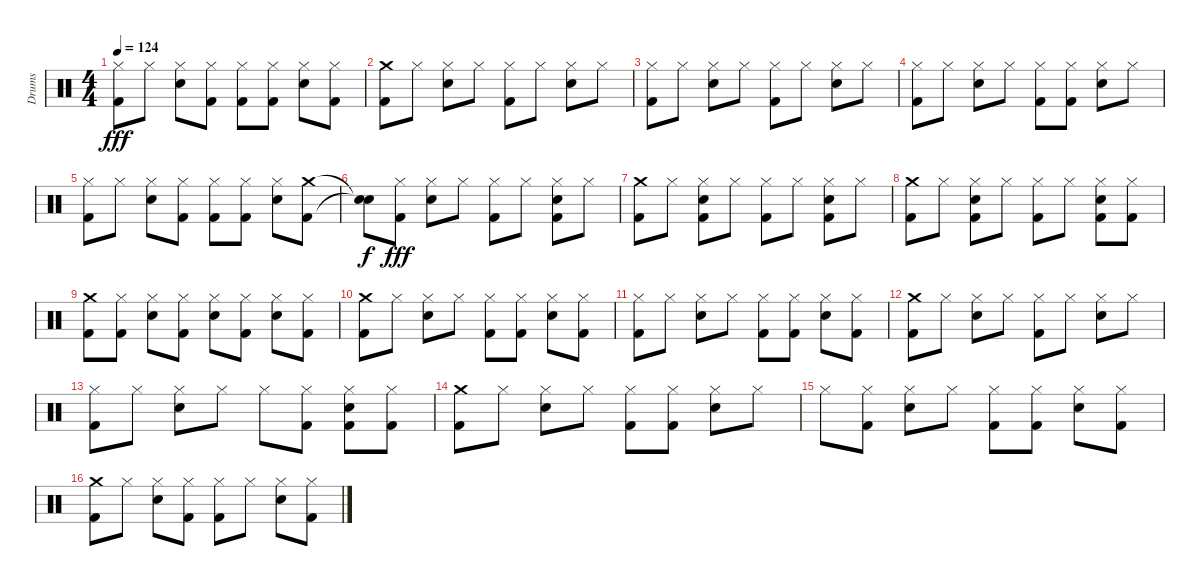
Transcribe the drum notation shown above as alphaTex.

\track ("Drums" "Drums") {instrument percussion}
\staff {score}
\articulation defaults
\ts (4 4)
\tempo 124
\clef neutral
\ks c
("Hi-Hat (closed)" "Kick (hit) 2").8{dy fff} "Hi-Hat (closed)".8 ("Hi-Hat (closed)" "Snare (hit) 2").8 ("Hi-Hat (closed)" "Kick (hit) 2").8 ("Hi-Hat (closed)" "Kick (hit) 2").8 ("Hi-Hat (closed)" "Kick (hit) 2").8 ("Hi-Hat (closed)" "Snare (hit) 2").8 ("Hi-Hat (closed)" "Kick (hit) 2").8 |
("Crash medium (hit)" "Kick (hit) 2").8 "Hi-Hat (closed)".8 ("Hi-Hat (closed)" "Snare (hit) 2").8 "Hi-Hat (closed)".8 ("Hi-Hat (closed)" "Kick (hit) 2").8 "Hi-Hat (closed)".8 ("Hi-Hat (closed)" "Snare (hit) 2").8 "Hi-Hat (closed)".8 |
("Hi-Hat (closed)" "Kick (hit) 2").8 "Hi-Hat (closed)".8 ("Hi-Hat (closed)" "Snare (hit) 2").8 "Hi-Hat (closed)".8 ("Hi-Hat (closed)" "Kick (hit) 2").8 "Hi-Hat (closed)".8 ("Hi-Hat (closed)" "Snare (hit) 2").8 "Hi-Hat (closed)".8 |
("Hi-Hat (closed)" "Kick (hit) 2").8 "Hi-Hat (closed)".8 ("Hi-Hat (closed)" "Snare (hit) 2").8 "Hi-Hat (closed)".8 ("Hi-Hat (closed)" "Kick (hit) 2").8 ("Hi-Hat (closed)" "Kick (hit) 2").8 ("Hi-Hat (closed)" "Snare (hit) 2").8 "Hi-Hat (closed)".8 |
("Hi-Hat (closed)" "Kick (hit) 2").8 "Hi-Hat (closed)".8 ("Hi-Hat (closed)" "Snare (hit) 2").8 ("Hi-Hat (closed)" "Kick (hit) 2").8 ("Hi-Hat (closed)" "Kick (hit) 2").8 ("Hi-Hat (closed)" "Kick (hit) 2").8 ("Hi-Hat (closed)" "Snare (hit) 2").8 ("Crash medium (hit)" "Kick (hit) 2").8 |
("Snare (hit)"{t} "Snare (hit)"{t}).8{dy f} ("Hi-Hat (closed)" "Kick (hit) 2").8{dy fff} ("Hi-Hat (closed)" "Snare (hit) 2").8 "Hi-Hat (closed)".8 ("Hi-Hat (closed)" "Kick (hit) 2").8 "Hi-Hat (closed)".8 ("Hi-Hat (closed)" "Snare (hit) 2" "Kick (hit) 2").8 "Hi-Hat (closed)".8 |
("Crash medium (hit)" "Kick (hit) 2").8 "Hi-Hat (closed)".8 ("Hi-Hat (closed)" "Snare (hit) 2" "Kick (hit) 2").8 "Hi-Hat (closed)".8 ("Hi-Hat (closed)" "Kick (hit) 2").8 "Hi-Hat (closed)".8 ("Hi-Hat (closed)" "Snare (hit) 2" "Kick (hit) 2").8 "Hi-Hat (closed)".8 |
("Crash medium (hit)" "Kick (hit) 2").8 "Hi-Hat (closed)".8 ("Hi-Hat (closed)" "Snare (hit) 2" "Kick (hit) 2").8 "Hi-Hat (closed)".8 ("Hi-Hat (closed)" "Kick (hit) 2").8 "Hi-Hat (closed)".8 ("Hi-Hat (closed)" "Snare (hit) 2" "Kick (hit) 2").8 ("Hi-Hat (closed)" "Kick (hit) 2").8 |
("Crash medium (hit)" "Kick (hit) 2").8 ("Hi-Hat (closed)" "Kick (hit) 2").8 ("Hi-Hat (closed)" "Snare (hit) 2").8 ("Hi-Hat (closed)" "Kick (hit) 2").8 ("Hi-Hat (closed)" "Snare (hit) 2").8 ("Hi-Hat (closed)" "Kick (hit) 2").8 ("Hi-Hat (closed)" "Snare (hit) 2").8 ("Hi-Hat (closed)" "Kick (hit) 2").8 |
("Crash medium (hit)" "Kick (hit) 2").8 "Hi-Hat (closed)".8 ("Hi-Hat (closed)" "Snare (hit) 2").8 "Hi-Hat (closed)".8 ("Hi-Hat (closed)" "Kick (hit) 2").8 ("Hi-Hat (closed)" "Kick (hit) 2").8 ("Hi-Hat (closed)" "Snare (hit) 2").8 ("Hi-Hat (closed)" "Kick (hit) 2").8 |
("Hi-Hat (closed)" "Kick (hit) 2").8 "Hi-Hat (closed)".8 ("Hi-Hat (closed)" "Snare (hit) 2").8 "Hi-Hat (closed)".8 ("Hi-Hat (closed)" "Kick (hit) 2").8 ("Hi-Hat (closed)" "Kick (hit) 2").8 ("Hi-Hat (closed)" "Snare (hit) 2").8 ("Hi-Hat (closed)" "Kick (hit) 2").8 |
("Crash medium (hit)" "Kick (hit) 2").8 "Hi-Hat (closed)".8 ("Hi-Hat (closed)" "Snare (hit) 2").8 "Hi-Hat (closed)".8 ("Hi-Hat (closed)" "Kick (hit) 2").8 "Hi-Hat (closed)".8 ("Hi-Hat (closed)" "Snare (hit) 2").8 "Hi-Hat (closed)".8 |
("Hi-Hat (closed)" "Kick (hit) 2").8 "Hi-Hat (closed)".8 ("Hi-Hat (closed)" "Snare (hit) 2").8 "Hi-Hat (closed)".8 "Hi-Hat (closed)".8 ("Hi-Hat (closed)" "Kick (hit) 2").8 ("Hi-Hat (closed)" "Snare (hit) 2" "Kick (hit) 2").8 ("Hi-Hat (closed)" "Kick (hit) 2").8 |
("Crash medium (hit)" "Kick (hit) 2").8 "Hi-Hat (closed)".8 ("Hi-Hat (closed)" "Snare (hit) 2").8 "Hi-Hat (closed)".8 ("Hi-Hat (closed)" "Kick (hit) 2").8 ("Hi-Hat (closed)" "Kick (hit) 2").8 ("Hi-Hat (closed)" "Snare (hit) 2").8 "Hi-Hat (closed)".8 |
"Hi-Hat (closed)".8 ("Hi-Hat (closed)" "Kick (hit) 2").8 ("Hi-Hat (closed)" "Snare (hit) 2").8 "Hi-Hat (closed)".8 ("Hi-Hat (closed)" "Kick (hit) 2").8 ("Hi-Hat (closed)" "Kick (hit) 2").8 ("Hi-Hat (closed)" "Snare (hit) 2").8 ("Hi-Hat (closed)" "Kick (hit) 2").8 |
("Crash medium (hit)" "Kick (hit) 2").8 "Hi-Hat (closed)".8 ("Hi-Hat (closed)" "Snare (hit) 2").8 ("Hi-Hat (closed)" "Kick (hit) 2").8 ("Hi-Hat (closed)" "Kick (hit) 2").8 "Hi-Hat (closed)".8 ("Hi-Hat (closed)" "Snare (hit) 2").8 ("Hi-Hat (closed)" "Kick (hit) 2").8
